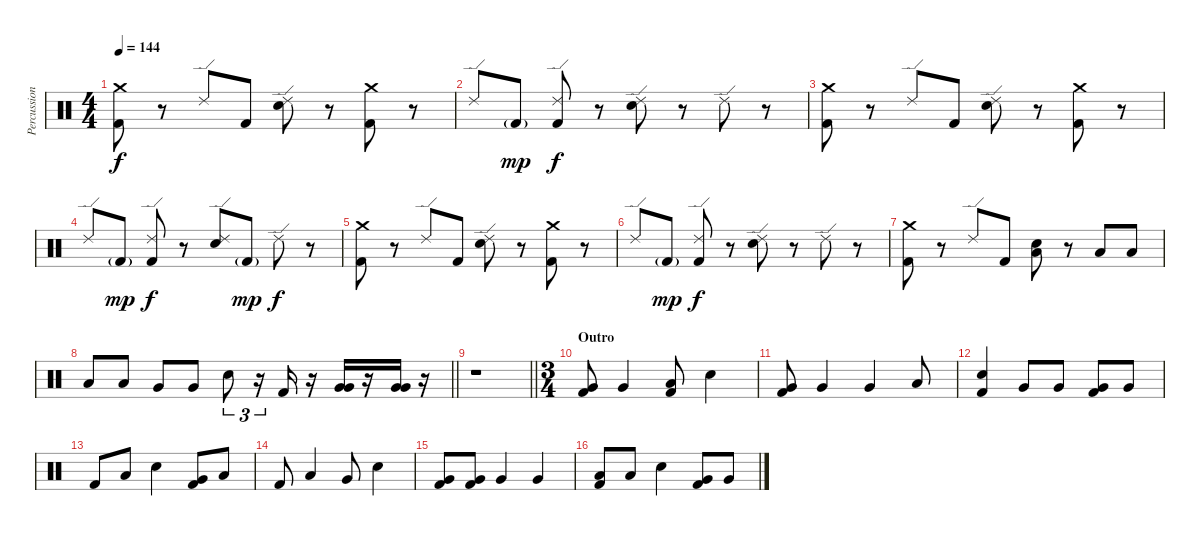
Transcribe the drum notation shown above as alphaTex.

\track ("Percussion" "Percussion") {instrument percussion}
\staff {score}
\articulation defaults
\ts (4 4)
\tempo 144
\clef neutral
\ks c
("Crash medium (hit)" "Kick (hit) 2").8{dy f} r.8 "Ride (edge) 2".8 "Kick (hit) 2".8 ("Ride (edge) 2" "Electric Snare (hit)").8 r.8 ("Crash medium (hit)" "Kick (hit) 2").8 r.8 |
"Ride (edge) 2".8 "Kick (hit) 2"{g}.8{dy mp} ("Ride (edge) 2" "Kick (hit) 2").8{dy f} r.8 ("Ride (edge) 2" "Electric Snare (hit)").8 r.8 "Ride (edge) 2".8 r.8 |
("Crash medium (hit)" "Kick (hit) 2").8 r.8 "Ride (edge) 2".8 "Kick (hit) 2".8 ("Ride (edge) 2" "Electric Snare (hit)").8 r.8 ("Crash medium (hit)" "Kick (hit) 2").8 r.8 |
"Ride (edge) 2".8 "Kick (hit) 2"{g}.8{dy mp} ("Ride (edge) 2" "Kick (hit) 2").8{dy f} r.8 ("Ride (edge) 2" "Electric Snare (hit)").8 "Kick (hit) 2"{g}.8{dy mp} "Ride (edge) 2".8{dy f} r.8 |
("Crash medium (hit)" "Kick (hit) 2").8 r.8 "Ride (edge) 2".8 "Kick (hit) 2".8 ("Ride (edge) 2" "Electric Snare (hit)").8 r.8 ("Crash medium (hit)" "Kick (hit) 2").8 r.8 |
"Ride (edge) 2".8 "Kick (hit) 2"{g}.8{dy mp} ("Ride (edge) 2" "Kick (hit) 2").8{dy f} r.8 ("Ride (edge) 2" "Electric Snare (hit)").8 r.8 "Ride (edge) 2".8 r.8 |
("Crash medium (hit)" "Kick (hit) 2").8 r.8 "Ride (edge) 2".8 "Kick (hit) 2".8 ("Low Floor Tom (hit)" "Electric Snare (hit)").8 r.8 "Low Tom (hit)".8 "Low Floor Tom (hit)".8 |
\barLineRight lightlight "Low Floor Tom (hit)".8 "Low Tom (hit)".8 "Very Low Tom (hit)".8 "Very Low Tom (hit)".8 "Electric Snare (hit)".8{tu (3 2)}
r.16{tu (3 2)} "Kick (hit) 2".16 r.16 ("Very Low Tom (hit)" "Very Low Tom (hit)").16 r.16 ("Very Low Tom (hit)" "Very Low Tom (hit)").16 r.16 |
\barLineRight lightlight
r.1 |
\ts (3 4)
\section ("" "Outro")
("Very Low Tom (hit)" "Kick (hit) 2").8 "Very Low Tom (hit)".4 ("Low Tom (hit)" "Kick (hit) 2").8 "Electric Snare (hit)".4 |
("Very Low Tom (hit)" "Kick (hit) 2").8 "Very Low Tom (hit)".4 "Very Low Tom (hit)".4 "Low Tom (hit)".8 |
("Electric Snare (hit)" "Kick (hit) 2").4 "Very Low Tom (hit)".8 "Very Low Tom (hit)".8 ("Very Low Tom (hit)" "Kick (hit) 2").8 "Very Low Tom (hit)".8 |
"Kick (hit) 2".8 "Low Tom (hit)".8 "Electric Snare (hit)".4 ("Very Low Tom (hit)" "Kick (hit) 2").8 "Low Tom (hit)".8 |
"Kick (hit) 2".8 "Low Tom (hit)".4 "Very Low Tom (hit)".8 "Electric Snare (hit)".4 |
("Very Low Tom (hit)" "Kick (hit) 2").8 ("Very Low Tom (hit)" "Kick (hit) 2").8 "Very Low Tom (hit)".4 "Very Low Tom (hit)".4 |
("Low Tom (hit)" "Kick (hit) 2").8 "Low Tom (hit)".8 "Electric Snare (hit)".4 ("Very Low Tom (hit)" "Kick (hit) 2").8 "Very Low Tom (hit)".8
